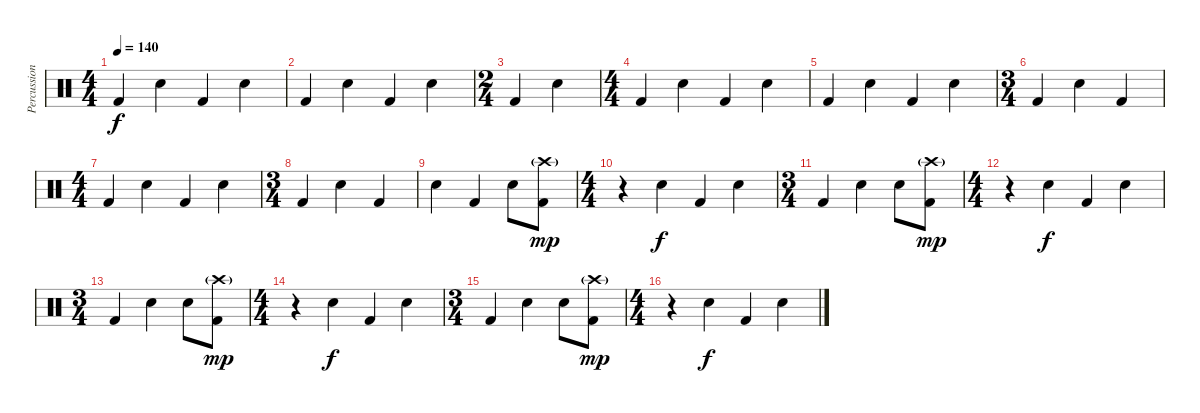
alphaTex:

\track ("Percussion" "Percussion") {instrument percussion}
\staff {score}
\articulation defaults
\ts (4 4)
\tempo 140
\clef neutral
\ks c "Kick (hit) 2".4{dy f} "Snare (hit) 2".4 "Kick (hit) 2".4 "Snare (hit) 2".4
|
"Kick (hit) 2".4 "Snare (hit) 2".4 "Kick (hit) 2".4 "Snare (hit) 2".4 |
\ts (2 4)
"Kick (hit) 2".4 "Snare (hit) 2".4 |
\ts (4 4)
"Kick (hit) 2".4 "Snare (hit) 2".4 "Kick (hit) 2".4 "Snare (hit) 2".4 |
"Kick (hit) 2".4 "Snare (hit) 2".4 "Kick (hit) 2".4 "Snare (hit) 2".4 |
\ts (3 4)
"Kick (hit) 2".4 "Snare (hit) 2".4 "Kick (hit) 2".4 |
\ts (4 4)
"Kick (hit) 2".4 "Snare (hit) 2".4 "Kick (hit) 2".4 "Snare (hit) 2".4 |
\ts (3 4)
"Kick (hit) 2".4 "Snare (hit) 2".4 "Kick (hit) 2".4 |
"Snare (hit) 2".4 "Kick (hit) 2".4 "Snare (hit) 2".8 ("Crash high (hit)"{g} "Kick (hit) 2").8{dy mp} |
\ts (4 4)
r.4 "Snare (hit) 2".4{dy f} "Kick (hit) 2".4 "Snare (hit) 2".4 |
\ts (3 4)
"Kick (hit) 2".4 "Snare (hit) 2".4 "Snare (hit) 2".8 ("Crash high (hit)"{g} "Kick (hit) 2").8{dy mp} |
\ts (4 4)
r.4 "Snare (hit) 2".4{dy f} "Kick (hit) 2".4 "Snare (hit) 2".4 |
\ts (3 4)
"Kick (hit) 2".4 "Snare (hit) 2".4 "Snare (hit) 2".8 ("Crash high (hit)"{g} "Kick (hit) 2").8{dy mp} |
\ts (4 4)
r.4 "Snare (hit) 2".4{dy f} "Kick (hit) 2".4 "Snare (hit) 2".4 |
\ts (3 4)
"Kick (hit) 2".4 "Snare (hit) 2".4 "Snare (hit) 2".8 ("Crash high (hit)"{g} "Kick (hit) 2").8{dy mp} |
\ts (4 4)
r.4 "Snare (hit) 2".4{dy f} "Kick (hit) 2".4 "Snare (hit) 2".4
